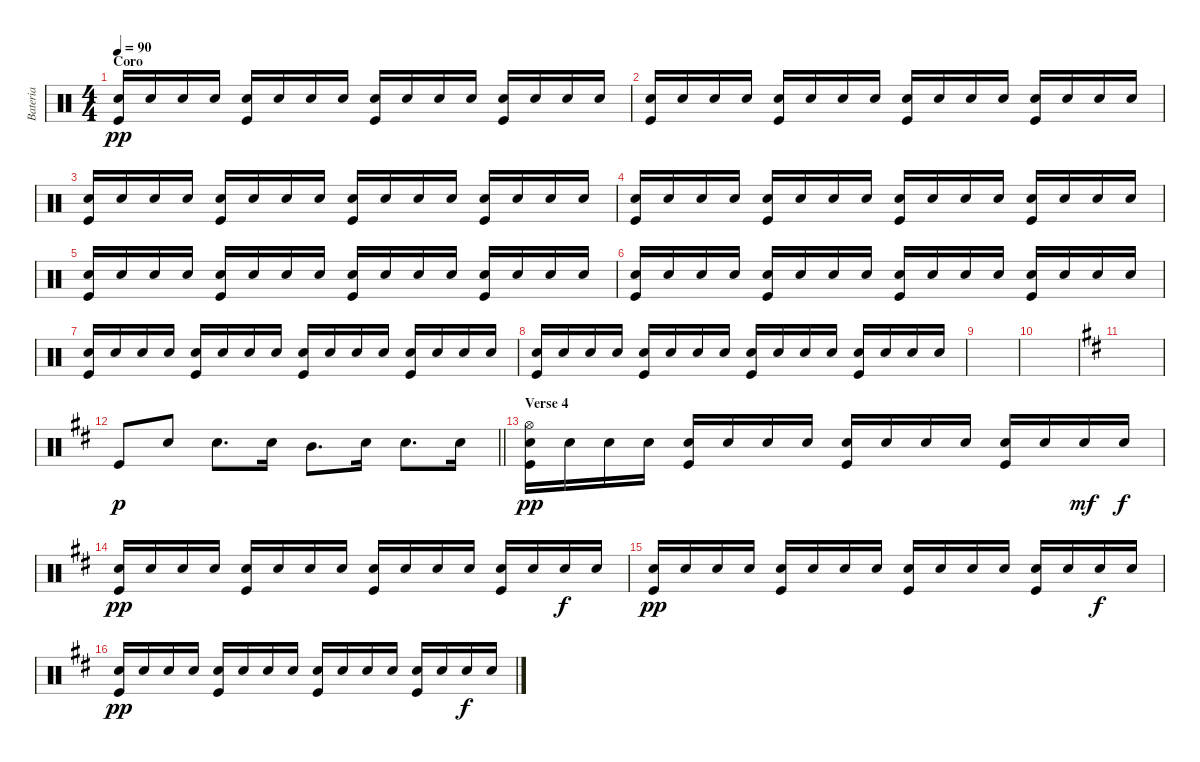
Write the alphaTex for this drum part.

\track ("Bateria" "Bateria") {instrument percussion}
\staff {score}
\articulation defaults
\ts (4 4)
\section ("" "Coro")
\tempo 90
\clef neutral
\ks c
("Snare (hit) 2" "Kick (hit)").16{dy pp} "Snare (hit) 2".16 "Snare (hit) 2".16 "Snare (hit) 2".16 ("Snare (hit) 2" "Kick (hit)").16 "Snare (hit) 2".16 "Snare (hit) 2".16 "Snare (hit) 2".16 ("Snare (hit) 2" "Kick (hit)").16 "Snare (hit) 2".16 "Snare (hit) 2".16 "Snare (hit) 2".16 ("Snare (hit) 2" "Kick (hit)").16 "Snare (hit) 2".16 "Snare (hit) 2".16 "Snare (hit) 2".16 |
("Snare (hit) 2" "Kick (hit)").16 "Snare (hit) 2".16 "Snare (hit) 2".16 "Snare (hit) 2".16 ("Snare (hit) 2" "Kick (hit)").16 "Snare (hit) 2".16 "Snare (hit) 2".16 "Snare (hit) 2".16 ("Snare (hit) 2" "Kick (hit)").16 "Snare (hit) 2".16 "Snare (hit) 2".16 "Snare (hit) 2".16 ("Snare (hit) 2" "Kick (hit)").16 "Snare (hit) 2".16 "Snare (hit) 2".16 "Snare (hit) 2".16 |
("Snare (hit) 2" "Kick (hit)").16 "Snare (hit) 2".16 "Snare (hit) 2".16 "Snare (hit) 2".16 ("Snare (hit) 2" "Kick (hit)").16 "Snare (hit) 2".16 "Snare (hit) 2".16 "Snare (hit) 2".16 ("Snare (hit) 2" "Kick (hit)").16 "Snare (hit) 2".16 "Snare (hit) 2".16 "Snare (hit) 2".16 ("Snare (hit) 2" "Kick (hit)").16 "Snare (hit) 2".16 "Snare (hit) 2".16 "Snare (hit) 2".16 |
("Snare (hit) 2" "Kick (hit)").16 "Snare (hit) 2".16 "Snare (hit) 2".16 "Snare (hit) 2".16 ("Snare (hit) 2" "Kick (hit)").16 "Snare (hit) 2".16 "Snare (hit) 2".16 "Snare (hit) 2".16 ("Snare (hit) 2" "Kick (hit)").16 "Snare (hit) 2".16 "Snare (hit) 2".16 "Snare (hit) 2".16 ("Snare (hit) 2" "Kick (hit)").16 "Snare (hit) 2".16 "Snare (hit) 2".16 "Snare (hit) 2".16 |
("Snare (hit) 2" "Kick (hit)").16 "Snare (hit) 2".16 "Snare (hit) 2".16 "Snare (hit) 2".16 ("Snare (hit) 2" "Kick (hit)").16 "Snare (hit) 2".16 "Snare (hit) 2".16 "Snare (hit) 2".16 ("Snare (hit) 2" "Kick (hit)").16 "Snare (hit) 2".16 "Snare (hit) 2".16 "Snare (hit) 2".16 ("Snare (hit) 2" "Kick (hit)").16 "Snare (hit) 2".16 "Snare (hit) 2".16 "Snare (hit) 2".16 |
("Snare (hit) 2" "Kick (hit)").16 "Snare (hit) 2".16 "Snare (hit) 2".16 "Snare (hit) 2".16 ("Snare (hit) 2" "Kick (hit)").16 "Snare (hit) 2".16 "Snare (hit) 2".16 "Snare (hit) 2".16 ("Snare (hit) 2" "Kick (hit)").16 "Snare (hit) 2".16 "Snare (hit) 2".16 "Snare (hit) 2".16 ("Snare (hit) 2" "Kick (hit)").16 "Snare (hit) 2".16 "Snare (hit) 2".16 "Snare (hit) 2".16 |
("Snare (hit) 2" "Kick (hit)").16 "Snare (hit) 2".16 "Snare (hit) 2".16 "Snare (hit) 2".16 ("Snare (hit) 2" "Kick (hit)").16 "Snare (hit) 2".16 "Snare (hit) 2".16 "Snare (hit) 2".16 ("Snare (hit) 2" "Kick (hit)").16 "Snare (hit) 2".16 "Snare (hit) 2".16 "Snare (hit) 2".16 ("Snare (hit) 2" "Kick (hit)").16 "Snare (hit) 2".16 "Snare (hit) 2".16 "Snare (hit) 2".16 |
("Snare (hit) 2" "Kick (hit)").16 "Snare (hit) 2".16 "Snare (hit) 2".16 "Snare (hit) 2".16 ("Snare (hit) 2" "Kick (hit)").16 "Snare (hit) 2".16 "Snare (hit) 2".16 "Snare (hit) 2".16 ("Snare (hit) 2" "Kick (hit)").16 "Snare (hit) 2".16 "Snare (hit) 2".16 "Snare (hit) 2".16 ("Snare (hit) 2" "Kick (hit)").16 "Snare (hit) 2".16 "Snare (hit) 2".16 "Snare (hit) 2".16 |
|
|
\ks d
|
\barLineRight lightlight "Kick (hit)".8{dy p} "Snare (hit) 2".8 "Snare (hit) 2".8{d} "Snare (hit) 2".16 "Mid Tom (hit)".8{d} "Snare (hit) 2".16 "Snare (hit) 2".8{d} "Snare (hit) 2".16
|
\section ("" "Verse 4")
("Hi-Hat (open)" "Snare (hit) 2" "Kick (hit)").16{dy pp} "Snare (hit) 2".16 "Snare (hit) 2".16 "Snare (hit) 2".16 ("Snare (hit) 2" "Kick (hit)").16 "Snare (hit) 2".16 "Snare (hit) 2".16 "Snare (hit) 2".16 ("Snare (hit) 2" "Kick (hit)").16 "Snare (hit) 2".16 "Snare (hit) 2".16 "Snare (hit) 2".16 ("Snare (hit) 2" "Kick (hit)").16 "Snare (hit) 2".16 "Snare (hit) 2".16{dy mf} "Snare (hit) 2".16{dy f} |
("Snare (hit) 2" "Kick (hit)").16{dy pp} "Snare (hit) 2".16 "Snare (hit) 2".16 "Snare (hit) 2".16 ("Snare (hit) 2" "Kick (hit)").16 "Snare (hit) 2".16 "Snare (hit) 2".16 "Snare (hit) 2".16 ("Snare (hit) 2" "Kick (hit)").16 "Snare (hit) 2".16 "Snare (hit) 2".16 "Snare (hit) 2".16 ("Snare (hit) 2" "Kick (hit)").16 "Snare (hit) 2".16 "Snare (hit) 2".16{dy f} "Snare (hit) 2".16 |
("Snare (hit) 2" "Kick (hit)").16{dy pp} "Snare (hit) 2".16 "Snare (hit) 2".16 "Snare (hit) 2".16 ("Snare (hit) 2" "Kick (hit)").16 "Snare (hit) 2".16 "Snare (hit) 2".16 "Snare (hit) 2".16 ("Snare (hit) 2" "Kick (hit)").16 "Snare (hit) 2".16 "Snare (hit) 2".16 "Snare (hit) 2".16 ("Snare (hit) 2" "Kick (hit)").16 "Snare (hit) 2".16 "Snare (hit) 2".16{dy f} "Snare (hit) 2".16 |
("Snare (hit) 2" "Kick (hit)").16{dy pp} "Snare (hit) 2".16 "Snare (hit) 2".16 "Snare (hit) 2".16 ("Snare (hit) 2" "Kick (hit)").16 "Snare (hit) 2".16 "Snare (hit) 2".16 "Snare (hit) 2".16 ("Snare (hit) 2" "Kick (hit)").16 "Snare (hit) 2".16 "Snare (hit) 2".16 "Snare (hit) 2".16 ("Snare (hit) 2" "Kick (hit)").16 "Snare (hit) 2".16 "Snare (hit) 2".16{dy f} "Snare (hit) 2".16
